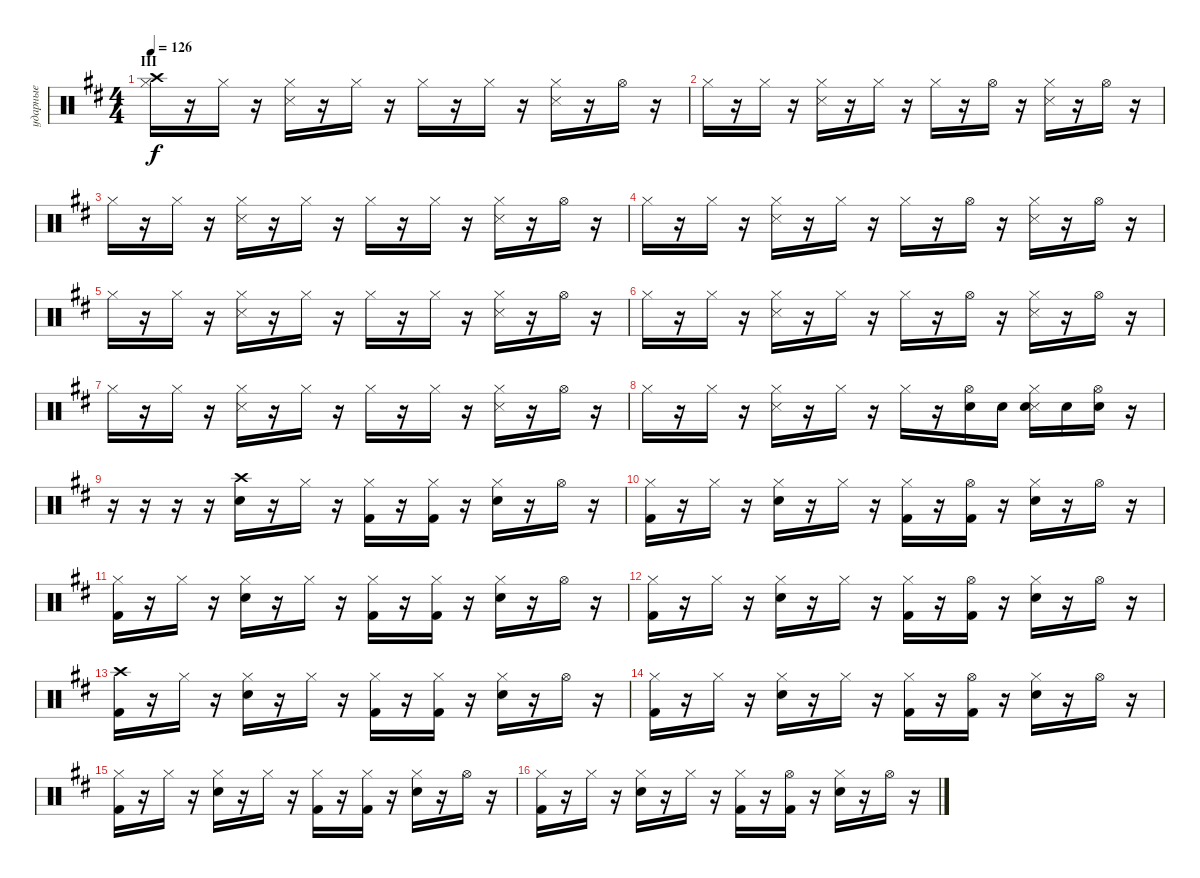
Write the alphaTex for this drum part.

\track ("ударные" "ударные") {instrument percussion}
\staff {score}
\articulation defaults
\ts (4 4)
\section ("" "III")
\tempo 126
\clef neutral
\ks d
("Crash high (hit)" "Hi-Hat (closed)").16{dy f} r.16 "Hi-Hat (closed)".16 r.16 ("Hi-Hat (closed)" "Metronome (hit)").16 r.16 "Hi-Hat (closed)".16 r.16 "Hi-Hat (closed)".16 r.16 "Hi-Hat (closed)".16 r.16 ("Hi-Hat (closed)" "Metronome (hit)").16 r.16 "Hi-Hat (open)".16 r.16 |
"Hi-Hat (closed)".16 r.16 "Hi-Hat (closed)".16 r.16 ("Hi-Hat (closed)" "Metronome (hit)").16 r.16 "Hi-Hat (closed)".16 r.16 "Hi-Hat (closed)".16 r.16 "Hi-Hat (open)".16 r.16 ("Hi-Hat (closed)" "Metronome (hit)").16 r.16 "Hi-Hat (open)".16 r.16 |
"Hi-Hat (closed)".16 r.16 "Hi-Hat (closed)".16 r.16 ("Hi-Hat (closed)" "Metronome (hit)").16 r.16 "Hi-Hat (closed)".16 r.16 "Hi-Hat (closed)".16 r.16 "Hi-Hat (closed)".16 r.16 ("Hi-Hat (closed)" "Metronome (hit)").16 r.16 "Hi-Hat (open)".16 r.16 |
"Hi-Hat (closed)".16 r.16 "Hi-Hat (closed)".16 r.16 ("Hi-Hat (closed)" "Metronome (hit)").16 r.16 "Hi-Hat (closed)".16 r.16 "Hi-Hat (closed)".16 r.16 "Hi-Hat (open)".16 r.16 ("Hi-Hat (closed)" "Metronome (hit)").16 r.16 "Hi-Hat (open)".16 r.16 |
"Hi-Hat (closed)".16 r.16 "Hi-Hat (closed)".16 r.16 ("Hi-Hat (closed)" "Metronome (hit)").16 r.16 "Hi-Hat (closed)".16 r.16 "Hi-Hat (closed)".16 r.16 "Hi-Hat (closed)".16 r.16 ("Hi-Hat (closed)" "Metronome (hit)").16 r.16 "Hi-Hat (open)".16 r.16 |
"Hi-Hat (closed)".16 r.16 "Hi-Hat (closed)".16 r.16 ("Hi-Hat (closed)" "Metronome (hit)").16 r.16 "Hi-Hat (closed)".16 r.16 "Hi-Hat (closed)".16 r.16 "Hi-Hat (open)".16 r.16 ("Hi-Hat (closed)" "Metronome (hit)").16 r.16 "Hi-Hat (open)".16 r.16 |
"Hi-Hat (closed)".16 r.16 "Hi-Hat (closed)".16 r.16 ("Hi-Hat (closed)" "Metronome (hit)").16 r.16 "Hi-Hat (closed)".16 r.16 "Hi-Hat (closed)".16 r.16 "Hi-Hat (closed)".16 r.16 ("Hi-Hat (closed)" "Metronome (hit)").16 r.16 "Hi-Hat (open)".16 r.16 |
"Hi-Hat (closed)".16 r.16 "Hi-Hat (closed)".16 r.16 ("Hi-Hat (closed)" "Metronome (hit)").16 r.16 "Hi-Hat (closed)".16 r.16 "Hi-Hat (closed)".16 r.16 ("Hi-Hat (open)" "Snare (hit) 2").16 "Snare (hit) 2".16 ("Hi-Hat (closed)" "Metronome (hit)" "Snare (hit) 2").16 "Snare (hit) 2".16 ("Hi-Hat (open)" "Snare (hit) 2").16 r.16 |
r.16 r.16 r.16 r.16 ("Crash high (hit)" "Electric Snare (hit)").16 r.16 "Hi-Hat (closed)".16 r.16 ("Hi-Hat (closed)" "Kick (hit) 2").16 r.16 ("Hi-Hat (closed)" "Kick (hit) 2").16 r.16 ("Hi-Hat (closed)" "Electric Snare (hit)").16 r.16 "Hi-Hat (open)".16 r.16 |
("Hi-Hat (closed)" "Kick (hit) 2").16 r.16 "Hi-Hat (closed)".16 r.16 ("Hi-Hat (closed)" "Electric Snare (hit)").16 r.16 "Hi-Hat (closed)".16 r.16 ("Hi-Hat (closed)" "Kick (hit) 2").16 r.16 ("Hi-Hat (open)" "Kick (hit) 2").16 r.16 ("Hi-Hat (closed)" "Electric Snare (hit)").16 r.16 "Hi-Hat (open)".16 r.16 |
("Hi-Hat (closed)" "Kick (hit) 2").16 r.16 "Hi-Hat (closed)".16 r.16 ("Hi-Hat (closed)" "Electric Snare (hit)").16 r.16 "Hi-Hat (closed)".16 r.16 ("Hi-Hat (closed)" "Kick (hit) 2").16 r.16 ("Hi-Hat (closed)" "Kick (hit) 2").16 r.16 ("Hi-Hat (closed)" "Electric Snare (hit)").16 r.16 "Hi-Hat (open)".16 r.16 |
("Hi-Hat (closed)" "Kick (hit) 2").16 r.16 "Hi-Hat (closed)".16 r.16 ("Hi-Hat (closed)" "Electric Snare (hit)").16 r.16 "Hi-Hat (closed)".16 r.16 ("Hi-Hat (closed)" "Kick (hit) 2").16 r.16 ("Hi-Hat (open)" "Kick (hit) 2").16 r.16 ("Hi-Hat (closed)" "Electric Snare (hit)").16 r.16 "Hi-Hat (open)".16 r.16 |
("Crash high (hit)" "Kick (hit) 2").16 r.16 "Hi-Hat (closed)".16 r.16 ("Hi-Hat (closed)" "Electric Snare (hit)").16 r.16 "Hi-Hat (closed)".16 r.16 ("Hi-Hat (closed)" "Kick (hit) 2").16 r.16 ("Hi-Hat (closed)" "Kick (hit) 2").16 r.16 ("Hi-Hat (closed)" "Electric Snare (hit)").16 r.16 "Hi-Hat (open)".16 r.16 |
("Hi-Hat (closed)" "Kick (hit) 2").16 r.16 "Hi-Hat (closed)".16 r.16 ("Hi-Hat (closed)" "Electric Snare (hit)").16 r.16 "Hi-Hat (closed)".16 r.16 ("Hi-Hat (closed)" "Kick (hit) 2").16 r.16 ("Hi-Hat (open)" "Kick (hit) 2").16 r.16 ("Hi-Hat (closed)" "Electric Snare (hit)").16 r.16 "Hi-Hat (open)".16 r.16 |
("Hi-Hat (closed)" "Kick (hit) 2").16 r.16 "Hi-Hat (closed)".16 r.16 ("Hi-Hat (closed)" "Electric Snare (hit)").16 r.16 "Hi-Hat (closed)".16 r.16 ("Hi-Hat (closed)" "Kick (hit) 2").16 r.16 ("Hi-Hat (closed)" "Kick (hit) 2").16 r.16 ("Hi-Hat (closed)" "Electric Snare (hit)").16 r.16 "Hi-Hat (open)".16 r.16 |
("Hi-Hat (closed)" "Kick (hit) 2").16 r.16 "Hi-Hat (closed)".16 r.16 ("Hi-Hat (closed)" "Electric Snare (hit)").16 r.16 "Hi-Hat (closed)".16 r.16 ("Hi-Hat (closed)" "Kick (hit) 2").16 r.16 ("Hi-Hat (open)" "Kick (hit) 2").16 r.16 ("Hi-Hat (closed)" "Electric Snare (hit)").16 r.16 "Hi-Hat (open)".16 r.16
